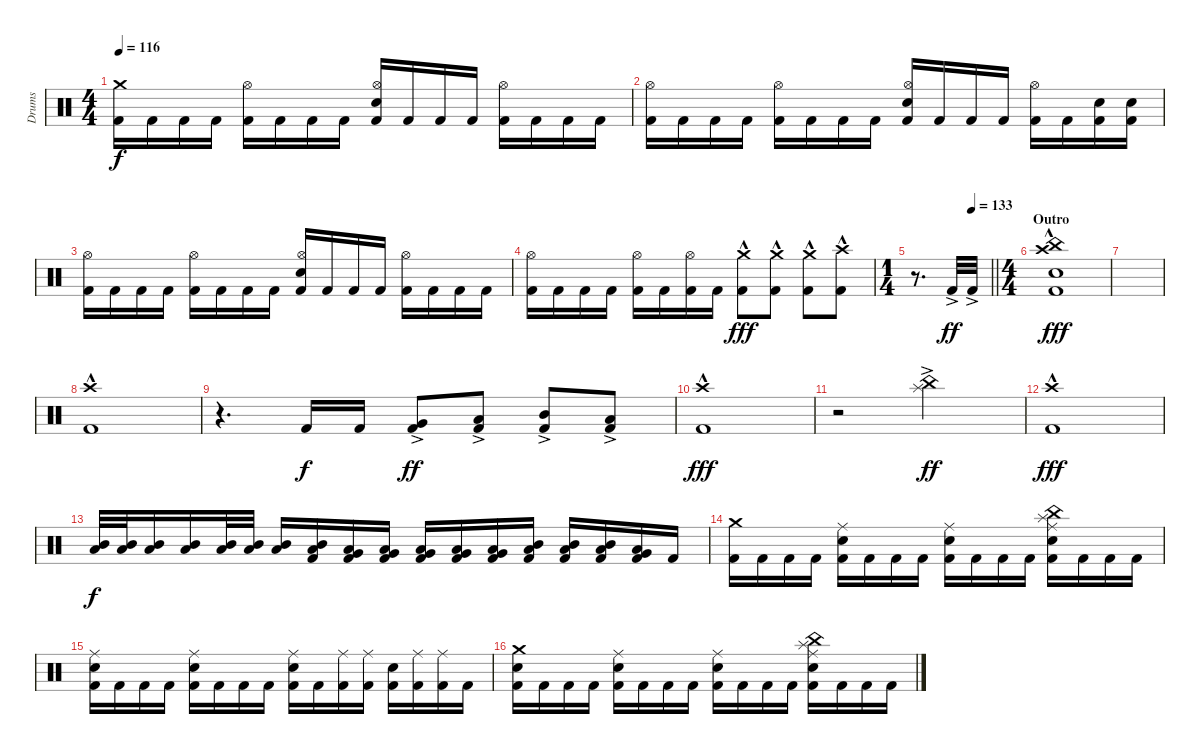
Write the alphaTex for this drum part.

\track ("Drums" "Drums") {instrument percussion}
\staff {score}
\articulation defaults
\ts (4 4)
\tempo 116
\clef neutral
\ks c
("Crash medium (hit)" "Kick (hit) 2").16{dy f} "Kick (hit) 2".16 "Kick (hit) 2".16 "Kick (hit) 2".16 ("Hi-Hat (open)" "Kick (hit) 2").16 "Kick (hit) 2".16 "Kick (hit) 2".16 "Kick (hit) 2".16 ("Electric Snare (hit)" "Hi-Hat (open)" "Kick (hit) 2").16 "Kick (hit) 2".16 "Kick (hit) 2".16 "Kick (hit) 2".16 ("Hi-Hat (open)" "Kick (hit) 2").16 "Kick (hit) 2".16 "Kick (hit) 2".16 "Kick (hit) 2".16 |
("Hi-Hat (open)" "Kick (hit) 2").16 "Kick (hit) 2".16 "Kick (hit) 2".16 "Kick (hit) 2".16 ("Hi-Hat (open)" "Kick (hit) 2").16 "Kick (hit) 2".16 "Kick (hit) 2".16 "Kick (hit) 2".16 ("Electric Snare (hit)" "Hi-Hat (open)" "Kick (hit) 2").16 "Kick (hit) 2".16 "Kick (hit) 2".16 "Kick (hit) 2".16 ("Hi-Hat (open)" "Kick (hit) 2").16 "Kick (hit) 2".16 ("Electric Snare (hit)" "Kick (hit) 2").16 ("Electric Snare (hit)" "Kick (hit) 2").16 |
("Hi-Hat (open)" "Kick (hit) 2").16 "Kick (hit) 2".16 "Kick (hit) 2".16 "Kick (hit) 2".16 ("Hi-Hat (open)" "Kick (hit) 2").16 "Kick (hit) 2".16 "Kick (hit) 2".16 "Kick (hit) 2".16 ("Electric Snare (hit)" "Hi-Hat (open)" "Kick (hit) 2").16 "Kick (hit) 2".16 "Kick (hit) 2".16 "Kick (hit) 2".16 ("Hi-Hat (open)" "Kick (hit) 2").16 "Kick (hit) 2".16 "Kick (hit) 2".16 "Kick (hit) 2".16 |
("Hi-Hat (open)" "Kick (hit) 2").16 "Kick (hit) 2".16 "Kick (hit) 2".16 "Kick (hit) 2".16 ("Hi-Hat (open)" "Kick (hit) 2").16 "Kick (hit) 2".16 ("Hi-Hat (open)" "Kick (hit) 2").16 "Kick (hit) 2".16 ("Crash medium (hit)" "Kick (hit) 2"{hac}).8{dy fff} ("Crash medium (hit)" "Kick (hit) 2"{hac}).8 ("Crash medium (hit)" "Kick (hit) 2"{hac}).8 ("Crash high (hit)" "Kick (hit) 2"{hac}).8 |
\ts (1 4)
\tempo (133 0.75)
\barLineRight lightlight
r.8{d} "Kick (hit) 2"{ac}.32{dy ff} "Kick (hit) 2"{ac}.32 |
\ts (4 4)
\section ("" "Outro")
("Crash high (hit)" "China (hit)" "Electric Snare (hit)" "Kick (hit) 2"{hac}).1{dy fff} |
|
("Crash high (hit)" "Kick (hit) 2"{hac}).1 |
r.4{d} "Kick (hit) 2".16{dy f} "Kick (hit) 2".16 ("Very Low Tom (hit)" "Kick (hit) 2"{ac}).8{dy ff} ("Low Tom (hit)" "Kick (hit) 2"{ac}).8 ("Mid Tom (hit)" "Kick (hit) 2"{ac}).8 ("Low Tom (hit)" "Kick (hit) 2"{ac}).8 |
("Crash high (hit)" "Kick (hit) 2"{hac}).1{dy fff} |
r.2 ("Splash (hit)"{ac} "China (hit)").2{dy ff} |
("Crash high (hit)" "Kick (hit) 2"{hac}).1{dy fff} |
("Mid Tom (hit)" "Low Tom (hit)").32{dy f} ("Mid Tom (hit)" "Low Tom (hit)").32 ("Mid Tom (hit)" "Low Tom (hit)").16 ("Mid Tom (hit)" "Low Tom (hit)").16 ("Mid Tom (hit)" "Low Tom (hit)").32 ("Mid Tom (hit)" "Low Tom (hit)").32 ("Mid Tom (hit)" "Low Tom (hit)").16 ("Mid Tom (hit)" "Low Tom (hit)" "Kick (hit) 2").16 ("Low Tom (hit)" "Very Low Tom (hit)" "Kick (hit) 2").16 ("Low Tom (hit)" "Very Low Tom (hit)" "Kick (hit) 2").16 ("Low Tom (hit)" "Very Low Tom (hit)" "Kick (hit) 2").16 ("Low Tom (hit)" "Very Low Tom (hit)" "Kick (hit) 2").16 ("Low Tom (hit)" "Very Low Tom (hit)" "Kick (hit) 2").16 ("Mid Tom (hit)" "Low Tom (hit)" "Kick (hit) 2").16 ("Mid Tom (hit)" "Low Tom (hit)" "Kick (hit) 2").16 ("Mid Tom (hit)" "Low Tom (hit)" "Kick (hit) 2").16 ("Very Low Tom (hit)" "Low Tom (hit)" "Kick (hit) 2").16 "Kick (hit) 2".16 |
("Crash medium (hit)" "Kick (hit) 2").16 "Kick (hit) 2".16 "Kick (hit) 2".16 "Kick (hit) 2".16 ("Electric Snare (hit)" "Ride (middle)" "Kick (hit) 2").16 "Kick (hit) 2".16 "Kick (hit) 2".16 "Kick (hit) 2".16 ("Electric Snare (hit)" "Ride (middle)" "Kick (hit) 2").16 "Kick (hit) 2".16 "Kick (hit) 2".16 "Kick (hit) 2".16 ("Splash (hit)" "China (hit)" "Electric Snare (hit)" "Ride (middle)" "Kick (hit) 2").16 "Kick (hit) 2".16 "Kick (hit) 2".16 "Kick (hit) 2".16 |
("Electric Snare (hit)" "Ride (middle)" "Kick (hit) 2").16 "Kick (hit) 2".16 "Kick (hit) 2".16 "Kick (hit) 2".16 ("Electric Snare (hit)" "Ride (middle)" "Kick (hit) 2").16 "Kick (hit) 2".16 "Kick (hit) 2".16 "Kick (hit) 2".16 ("Electric Snare (hit)" "Ride (middle)" "Kick (hit) 2").16 "Kick (hit) 2".16 ("Ride (middle)" "Kick (hit) 2").16 ("Ride (middle)" "Kick (hit) 2").16 ("Electric Snare (hit)" "Kick (hit) 2").16 ("Ride (middle)" "Kick (hit) 2").16 ("Ride (middle)" "Kick (hit) 2").16 "Kick (hit) 2".16 |
("Crash medium (hit)" "Electric Snare (hit)" "Kick (hit) 2").16 "Kick (hit) 2".16 "Kick (hit) 2".16 "Kick (hit) 2".16 ("Electric Snare (hit)" "Ride (middle)" "Kick (hit) 2").16 "Kick (hit) 2".16 "Kick (hit) 2".16 "Kick (hit) 2".16 ("Electric Snare (hit)" "Ride (middle)" "Kick (hit) 2").16 "Kick (hit) 2".16 "Kick (hit) 2".16 "Kick (hit) 2".16 ("Splash (hit)" "China (hit)" "Electric Snare (hit)" "Ride (middle)" "Kick (hit) 2").16 "Kick (hit) 2".16 "Kick (hit) 2".16 "Kick (hit) 2".16
